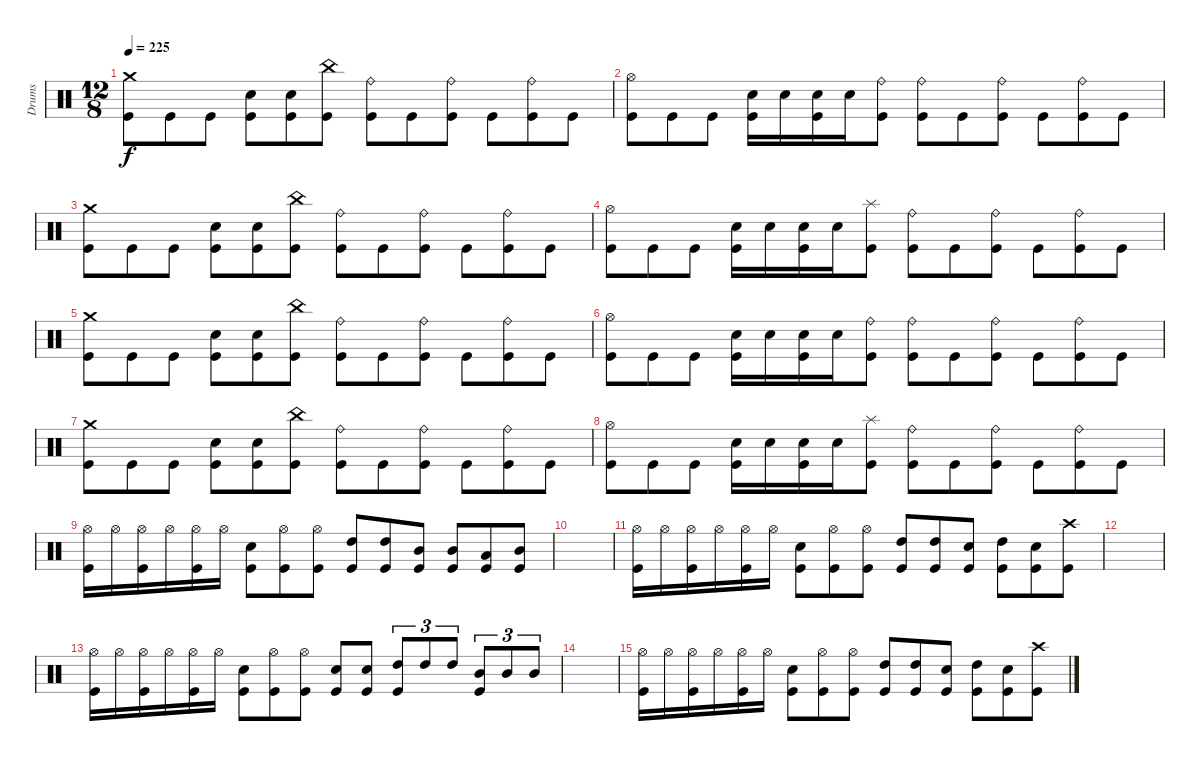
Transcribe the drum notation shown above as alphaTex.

\track ("Drums" "Drums") {instrument percussion}
\staff {score}
\articulation defaults
\ts (12 8)
\tempo 225
\clef neutral
\ks c
("Kick (hit)" "Crash medium (hit)").8{dy f} "Kick (hit)".8 "Kick (hit)".8 ("Kick (hit)" "Snare (hit) 2").8 ("Kick (hit)" "Snare (hit) 2").8 ("Kick (hit)" "China (hit)").8 ("Kick (hit)" "Ride (bell)").8 "Kick (hit)".8 ("Kick (hit)" "Ride (bell)").8 "Kick (hit)".8 ("Kick (hit)" "Ride (bell)").8 "Kick (hit)".8 |
("Kick (hit)" "Hi-Hat (open)").8 "Kick (hit)".8 "Kick (hit)".8 ("Kick (hit)" "Snare (hit) 2").16 "Snare (hit) 2".16 ("Kick (hit)" "Snare (hit) 2").16 "Snare (hit) 2".16 ("Kick (hit)" "Ride (bell)").8 ("Kick (hit)" "Ride (bell)").8 "Kick (hit)".8 ("Kick (hit)" "Ride (bell)").8 "Kick (hit)".8 ("Kick (hit)" "Ride (bell)").8 "Kick (hit)".8 |
("Kick (hit)" "Crash medium (hit)").8 "Kick (hit)".8 "Kick (hit)".8 ("Kick (hit)" "Snare (hit) 2").8 ("Kick (hit)" "Snare (hit) 2").8 ("Kick (hit)" "China (hit)").8 ("Kick (hit)" "Ride (bell)").8 "Kick (hit)".8 ("Kick (hit)" "Ride (bell)").8 "Kick (hit)".8 ("Kick (hit)" "Ride (bell)").8 "Kick (hit)".8 |
("Kick (hit)" "Hi-Hat (open)").8 "Kick (hit)".8 "Kick (hit)".8 ("Kick (hit)" "Snare (hit) 2").16 "Snare (hit) 2".16 ("Kick (hit)" "Snare (hit) 2").16 "Snare (hit) 2".16 ("Kick (hit)" "Splash (hit)").8 ("Kick (hit)" "Ride (bell)").8 "Kick (hit)".8 ("Kick (hit)" "Ride (bell)").8 "Kick (hit)".8 ("Kick (hit)" "Ride (bell)").8 "Kick (hit)".8 |
("Kick (hit)" "Crash medium (hit)").8 "Kick (hit)".8 "Kick (hit)".8 ("Kick (hit)" "Snare (hit) 2").8 ("Kick (hit)" "Snare (hit) 2").8 ("Kick (hit)" "China (hit)").8 ("Kick (hit)" "Ride (bell)").8 "Kick (hit)".8 ("Kick (hit)" "Ride (bell)").8 "Kick (hit)".8 ("Kick (hit)" "Ride (bell)").8 "Kick (hit)".8 |
("Kick (hit)" "Hi-Hat (open)").8 "Kick (hit)".8 "Kick (hit)".8 ("Kick (hit)" "Snare (hit) 2").16 "Snare (hit) 2".16 ("Kick (hit)" "Snare (hit) 2").16 "Snare (hit) 2".16 ("Kick (hit)" "Ride (bell)").8 ("Kick (hit)" "Ride (bell)").8 "Kick (hit)".8 ("Kick (hit)" "Ride (bell)").8 "Kick (hit)".8 ("Kick (hit)" "Ride (bell)").8 "Kick (hit)".8 |
("Kick (hit)" "Crash medium (hit)").8 "Kick (hit)".8 "Kick (hit)".8 ("Kick (hit)" "Snare (hit) 2").8 ("Kick (hit)" "Snare (hit) 2").8 ("Kick (hit)" "China (hit)").8 ("Kick (hit)" "Ride (bell)").8 "Kick (hit)".8 ("Kick (hit)" "Ride (bell)").8 "Kick (hit)".8 ("Kick (hit)" "Ride (bell)").8 "Kick (hit)".8 |
("Kick (hit)" "Hi-Hat (open)").8 "Kick (hit)".8 "Kick (hit)".8 ("Kick (hit)" "Snare (hit) 2").16 "Snare (hit) 2".16 ("Kick (hit)" "Snare (hit) 2").16 "Snare (hit) 2".16 ("Kick (hit)" "Splash (hit)").8 ("Kick (hit)" "Ride (bell)").8 "Kick (hit)".8 ("Kick (hit)" "Ride (bell)").8 "Kick (hit)".8 ("Kick (hit)" "Ride (bell)").8 "Kick (hit)".8 |
("Kick (hit)" "Hi-Hat (open)").16 "Hi-Hat (open)".16 ("Kick (hit)" "Hi-Hat (open)").16 "Hi-Hat (open)".16 ("Kick (hit)" "Hi-Hat (open)").16 "Hi-Hat (open)".16 ("Kick (hit)" "Snare (hit) 2").8 ("Kick (hit)" "Hi-Hat (open)").8 ("Kick (hit)" "Hi-Hat (open)").8 ("Kick (hit)" "High Tom (hit)").8 ("Kick (hit)" "High Tom (hit)").8 ("Kick (hit)" "Mid Tom (hit)").8 ("Kick (hit)" "Mid Tom (hit)").8 ("Kick (hit)" "Low Tom (hit)").8 ("Kick (hit)" "Mid Tom (hit)").8 |
|
("Kick (hit)" "Hi-Hat (open)").16 "Hi-Hat (open)".16 ("Kick (hit)" "Hi-Hat (open)").16 "Hi-Hat (open)".16 ("Kick (hit)" "Hi-Hat (open)").16 "Hi-Hat (open)".16 ("Kick (hit)" "Snare (hit) 2").8 ("Kick (hit)" "Hi-Hat (open)").8 ("Kick (hit)" "Hi-Hat (open)").8 ("Kick (hit)" "High Tom (hit)").8 ("Kick (hit)" "High Tom (hit)").8 ("Kick (hit)" "Snare (hit) 2").8 ("Kick (hit)" "High Tom (hit)").8 ("Kick (hit)" "Snare (hit) 2").8 ("Kick (hit)" "Crash high (hit)").8 |
|
("Kick (hit)" "Hi-Hat (open)").16 "Hi-Hat (open)".16 ("Kick (hit)" "Hi-Hat (open)").16 "Hi-Hat (open)".16 ("Kick (hit)" "Hi-Hat (open)").16 "Hi-Hat (open)".16 ("Kick (hit)" "Snare (hit) 2").8 ("Kick (hit)" "Hi-Hat (open)").8 ("Kick (hit)" "Hi-Hat (open)").8 ("Kick (hit)" "Snare (hit) 2").8 ("Kick (hit)" "Snare (hit) 2").8 ("Kick (hit)" "High Tom (hit)").8{tu (3 2)} "High Tom (hit)".8{tu (3 2)} "High Tom (hit)".8{tu (3 2)} ("Kick (hit)" "Mid Tom (hit)").8{tu (3 2)} "Mid Tom (hit)".8{tu (3 2)} "Mid Tom (hit)".8{tu (3 2)} |
|
("Kick (hit)" "Hi-Hat (open)").16 "Hi-Hat (open)".16 ("Kick (hit)" "Hi-Hat (open)").16 "Hi-Hat (open)".16 ("Kick (hit)" "Hi-Hat (open)").16 "Hi-Hat (open)".16 ("Kick (hit)" "Snare (hit) 2").8 ("Kick (hit)" "Hi-Hat (open)").8 ("Kick (hit)" "Hi-Hat (open)").8 ("Kick (hit)" "High Tom (hit)").8 ("Kick (hit)" "High Tom (hit)").8 ("Kick (hit)" "Snare (hit) 2").8 ("Kick (hit)" "High Tom (hit)").8 ("Kick (hit)" "Snare (hit) 2").8 ("Kick (hit)" "Crash high (hit)").8
